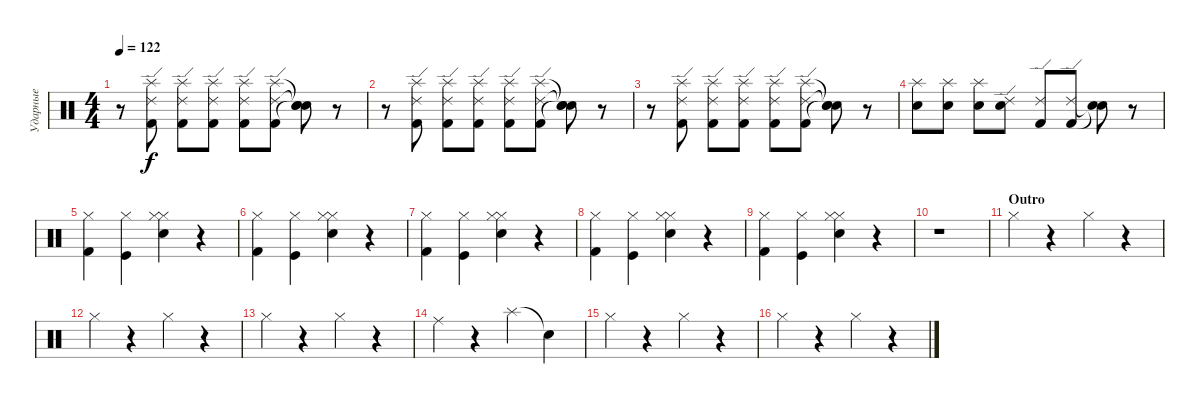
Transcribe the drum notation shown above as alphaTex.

\track ("Ударные" "Ударные") {instrument percussion}
\staff {score}
\articulation defaults
\ts (4 4)
\tempo 122
\clef neutral
\ks c
r.8{dy f} ("Splash (hit)" "Ride (edge) 2" "Kick (hit) 2").8 ("Splash (hit)" "Ride (edge) 2" "Kick (hit) 2").8 ("Splash (hit)" "Ride (edge) 2" "Kick (hit) 2").8 ("Splash (hit)" "Ride (edge) 2" "Kick (hit) 2").8 ("Splash (hit)" "Ride (edge) 2" "Kick (hit) 2").8 ("Snare (hit)"{t} "Snare (hit)"{t} "Snare (hit)"{t}).8 r.8 |
r.8 ("Splash (hit)" "Ride (edge) 2" "Kick (hit) 2").8 ("Splash (hit)" "Ride (edge) 2" "Kick (hit) 2").8 ("Splash (hit)" "Ride (edge) 2" "Kick (hit) 2").8 ("Splash (hit)" "Ride (edge) 2" "Kick (hit) 2").8 ("Splash (hit)" "Ride (edge) 2" "Kick (hit) 2").8 ("Snare (hit)"{t} "Snare (hit)"{t} "Snare (hit)"{t}).8 r.8 |
r.8 ("Splash (hit)" "Ride (edge) 2" "Kick (hit) 2").8 ("Splash (hit)" "Ride (edge) 2" "Kick (hit) 2").8 ("Splash (hit)" "Ride (edge) 2" "Kick (hit) 2").8 ("Splash (hit)" "Ride (edge) 2" "Kick (hit) 2").8 ("Splash (hit)" "Ride (edge) 2" "Kick (hit) 2").8 ("Snare (hit)"{t} "Snare (hit)"{t} "Snare (hit)"{t}).8 r.8 |
("Splash (hit)" "Electric Snare (hit)").8 ("Splash (hit)" "Electric Snare (hit)").8 ("Splash (hit)" "Electric Snare (hit)").8 ("Ride (edge) 2" "Electric Snare (hit)").8 ("Ride (edge) 2" "Kick (hit) 2").8 ("Ride (edge) 2" "Kick (hit) 2").8 ("Snare (hit)"{t} "Snare (hit)"{t}).8 r.8 |
("Hi-Hat (closed)" "Kick (hit) 2").4 ("Hi-Hat (closed)" "Kick (hit)").4 ("Hi-Hat (closed)" "Hi-Hat (closed)" "Electric Snare (hit)").4 r.4 |
("Hi-Hat (closed)" "Kick (hit) 2").4 ("Hi-Hat (closed)" "Kick (hit)").4 ("Hi-Hat (closed)" "Hi-Hat (closed)" "Electric Snare (hit)").4 r.4 |
("Hi-Hat (closed)" "Kick (hit) 2").4 ("Hi-Hat (closed)" "Kick (hit)").4 ("Hi-Hat (closed)" "Hi-Hat (closed)" "Electric Snare (hit)").4 r.4 |
("Hi-Hat (closed)" "Kick (hit) 2").4 ("Hi-Hat (closed)" "Kick (hit)").4 ("Hi-Hat (closed)" "Hi-Hat (closed)" "Electric Snare (hit)").4 r.4 |
("Hi-Hat (closed)" "Kick (hit) 2").4 ("Hi-Hat (closed)" "Kick (hit)").4 ("Hi-Hat (closed)" "Hi-Hat (closed)" "Electric Snare (hit)").4 r.4 |
r.1 |
\section ("" "Outro")
"Hi-Hat (closed)".4 r.4 "Hi-Hat (closed)".4 r.4 |
"Hi-Hat (closed)".4 r.4 "Hi-Hat (closed)".4 r.4 |
"Hi-Hat (closed)".4 r.4 "Hi-Hat (closed)".4 r.4 |
"Ride (middle)".4 r.4 "Splash (hit)".4 "Snare (hit)"{t}.4 |
"Hi-Hat (closed)".4 r.4 "Hi-Hat (closed)".4 r.4 |
"Hi-Hat (closed)".4 r.4 "Hi-Hat (closed)".4 r.4
